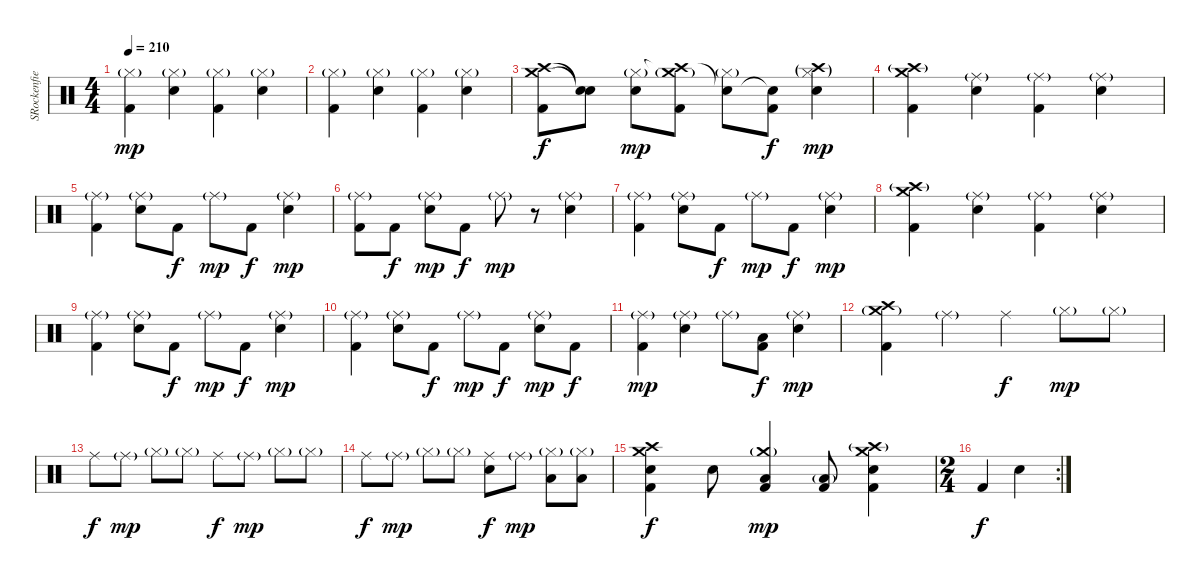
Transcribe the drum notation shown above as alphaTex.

\track ("SRockenfield" "SRockenfie") {instrument percussion}
\staff {score}
\articulation defaults
\ts (4 4)
\tempo 210
\clef neutral
\ks c
("Hi-Hat (closed)"{g} "Kick (hit) 2").4{dy mp} ("Hi-Hat (closed)"{g} "Electric Snare (hit)").4 ("Hi-Hat (closed)"{g} "Kick (hit) 2").4 ("Hi-Hat (closed)"{g} "Electric Snare (hit)").4 |
("Hi-Hat (closed)"{g} "Kick (hit) 2").4 ("Hi-Hat (closed)"{g} "Electric Snare (hit)").4 ("Hi-Hat (closed)"{g} "Kick (hit) 2").4 ("Hi-Hat (closed)"{g} "Electric Snare (hit)").4 |
("Crash high (hit)" "Crash medium (hit)" "Kick (hit) 2").8{dy f} ("Snare (hit)"{t} "Snare (hit)"{t}).8 ("Hi-Hat (closed)"{g} "Electric Snare (hit)").8{dy mp} ("Crash high (hit)"{t} "Crash medium (hit)"{g} "Kick (hit) 2").8 ("Snare (hit)"{t} "Hi-Hat (closed)"{g}).8 ("Snare (hit)"{t} "Kick (hit) 2").8{dy f} ("Crash high (hit)"{g} "Hi-Hat (closed)"{g} "Electric Snare (hit)").4{dy mp} |
("Crash high (hit)"{g} "Crash medium (hit)" "Kick (hit) 2").4 ("Ride (middle)"{g} "Electric Snare (hit)").4 ("Ride (middle)"{g} "Kick (hit) 2").4 ("Ride (middle)"{g} "Electric Snare (hit)").4 |
("Ride (middle)"{g} "Kick (hit) 2").4 ("Ride (middle)"{g} "Electric Snare (hit)").8 "Kick (hit) 2".8{dy f} "Ride (middle)"{g}.8{dy mp} "Kick (hit) 2".8{dy f} ("Ride (middle)"{g} "Electric Snare (hit)").4{dy mp} |
("Ride (middle)"{g} "Kick (hit) 2").8 "Kick (hit) 2".8{dy f} ("Ride (middle)"{g} "Electric Snare (hit)").8{dy mp} "Kick (hit) 2".8{dy f} "Ride (middle)"{g}.8{dy mp} r.8 ("Ride (middle)"{g} "Electric Snare (hit)").4 |
("Ride (middle)"{g} "Kick (hit) 2").4 ("Ride (middle)"{g} "Electric Snare (hit)").8 "Kick (hit) 2".8{dy f} "Ride (middle)"{g}.8{dy mp} "Kick (hit) 2".8{dy f} ("Ride (middle)"{g} "Electric Snare (hit)").4{dy mp} |
("Crash high (hit)"{g} "Crash medium (hit)" "Kick (hit) 2").4 ("Ride (middle)"{g} "Electric Snare (hit)").4 ("Ride (middle)"{g} "Kick (hit) 2").4 ("Ride (middle)"{g} "Electric Snare (hit)").4 |
("Ride (middle)"{g} "Kick (hit) 2").4 ("Ride (middle)"{g} "Electric Snare (hit)").8 "Kick (hit) 2".8{dy f} "Ride (middle)"{g}.8{dy mp} "Kick (hit) 2".8{dy f} ("Ride (middle)"{g} "Electric Snare (hit)").4{dy mp} |
("Ride (middle)"{g} "Kick (hit) 2").4 ("Ride (middle)"{g} "Electric Snare (hit)").8 "Kick (hit) 2".8{dy f} "Ride (middle)"{g}.8{dy mp} "Kick (hit) 2".8{dy f} ("Ride (middle)"{g} "Electric Snare (hit)").8{dy mp} "Kick (hit) 2".8{dy f} |
("Ride (middle)"{g} "Kick (hit) 2").4{dy mp} ("Ride (middle)"{g} "Electric Snare (hit)").4 "Ride (middle)"{g}.8 ("Low Floor Tom (hit)" "Kick (hit) 2").8{dy f} ("Ride (middle)"{g} "Electric Snare (hit)").4{dy mp} |
("Crash high (hit)" "Crash medium (hit)"{g} "Kick (hit) 2").4 "Ride (middle)"{g}.4 "Ride (middle)".4{dy f} "Hi-Hat (closed)"{g}.8{dy mp} "Hi-Hat (closed)"{g}.8 |
"Ride (middle)".8{dy f} "Ride (middle)"{g}.8{dy mp} "Hi-Hat (closed)"{g}.8 "Hi-Hat (closed)"{g}.8 "Ride (middle)".8{dy f} "Ride (middle)"{g}.8{dy mp} "Hi-Hat (closed)"{g}.8 "Hi-Hat (closed)"{g}.8 |
"Ride (middle)".8{dy f} "Ride (middle)"{g}.8{dy mp} "Hi-Hat (closed)"{g}.8 "Hi-Hat (closed)"{g}.8 ("Ride (middle)" "Electric Snare (hit)").8{dy f} "Ride (middle)"{g}.8{dy mp} ("Hi-Hat (closed)"{g} "Low Floor Tom (hit)").8 ("Hi-Hat (closed)"{g} "Low Floor Tom (hit)").8 |
("Crash high (hit)" "Crash medium (hit)" "Electric Snare (hit)" "Kick (hit) 2").4{dy f} "Electric Snare (hit)".8 ("Crash medium (hit)"{g} "Low Floor Tom (hit)" "Kick (hit) 2").4{dy mp} ("Low Floor Tom (hit)"{g} "Kick (hit) 2").8 ("Crash high (hit)"{g} "Crash medium (hit)" "Electric Snare (hit)" "Kick (hit) 2").4 |
\rc 2
\ts (2 4)
"Kick (hit) 2".4{dy f} "Electric Snare (hit)".4
